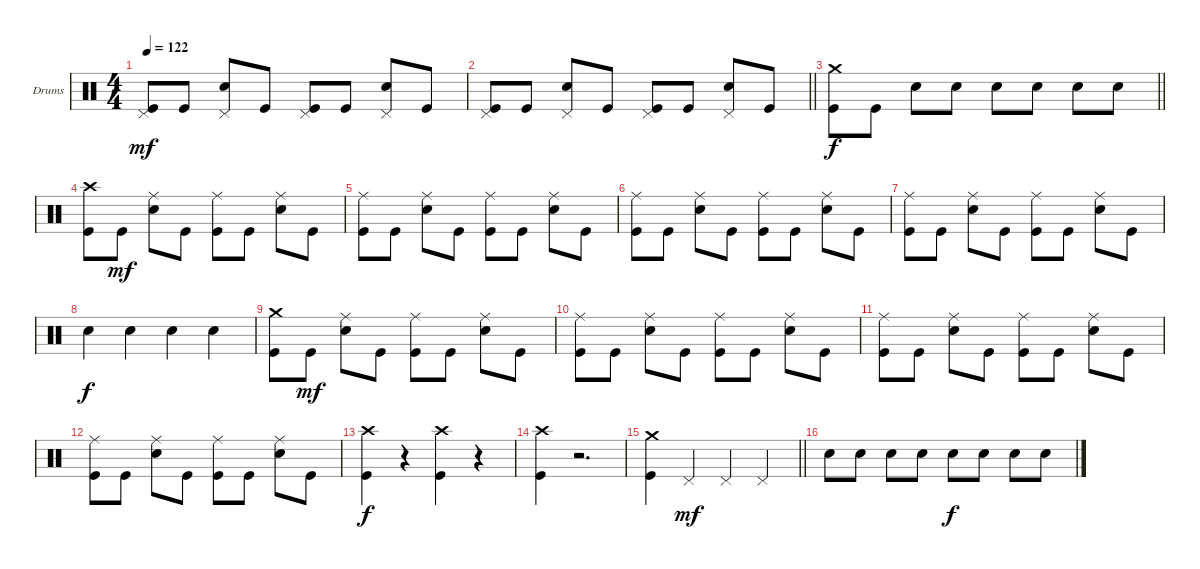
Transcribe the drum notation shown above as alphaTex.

\defaultSystemsLayout 4
\bracketExtendMode groupsimilarinstruments
\firstSystemTrackNameOrientation horizontal
\otherSystemsTrackNameOrientation horizontal
\track ("Drum" "Drums") {instrument percussion}
\staff {score}
\articulation defaults
\ts (4 4)
\tempo 122
\clef neutral
\ks c
("Kick (hit)" "Pedal Hi-Hat (hit)").8{dy mf} "Kick (hit)".8 ("Snare (hit) 2" "Pedal Hi-Hat (hit)").8 "Kick (hit)".8 ("Kick (hit)" "Pedal Hi-Hat (hit)").8 "Kick (hit)".8 ("Snare (hit) 2" "Pedal Hi-Hat (hit)").8 "Kick (hit)".8 |
\barLineRight lightlight
("Kick (hit)" "Pedal Hi-Hat (hit)").8 "Kick (hit)".8 ("Snare (hit) 2" "Pedal Hi-Hat (hit)").8 "Kick (hit)".8 ("Kick (hit)" "Pedal Hi-Hat (hit)").8 "Kick (hit)".8 ("Snare (hit) 2" "Pedal Hi-Hat (hit)").8 "Kick (hit)".8 |
\barLineRight lightlight
("Kick (hit)" "Crash medium (hit)").8{dy f} "Kick (hit)".8 "Snare (hit) 2".8 "Snare (hit) 2".8 "Snare (hit) 2".8 "Snare (hit) 2".8 "Snare (hit) 2".8 "Snare (hit) 2".8 |
("Kick (hit)" "Crash high (hit)").8 "Kick (hit)".8{dy mf} ("Snare (hit) 2" "Ride (middle)").8 "Kick (hit)".8 ("Kick (hit)" "Ride (middle)").8 "Kick (hit)".8 ("Snare (hit) 2" "Ride (middle)").8 "Kick (hit)".8 |
("Kick (hit)" "Ride (middle)").8 "Kick (hit)".8 ("Snare (hit) 2" "Ride (middle)").8 "Kick (hit)".8 ("Kick (hit)" "Ride (middle)").8 "Kick (hit)".8 ("Snare (hit) 2" "Ride (middle)").8 "Kick (hit)".8 |
("Kick (hit)" "Ride (middle)").8 "Kick (hit)".8 ("Snare (hit) 2" "Ride (middle)").8 "Kick (hit)".8 ("Kick (hit)" "Ride (middle)").8 "Kick (hit)".8 ("Snare (hit) 2" "Ride (middle)").8 "Kick (hit)".8 |
("Kick (hit)" "Ride (middle)").8 "Kick (hit)".8 ("Snare (hit) 2" "Ride (middle)").8 "Kick (hit)".8 ("Kick (hit)" "Ride (middle)").8 "Kick (hit)".8 ("Snare (hit) 2" "Ride (middle)").8 "Kick (hit)".8 |
"Snare (hit) 2".4{dy f} "Snare (hit) 2".4 "Snare (hit) 2".4 "Snare (hit) 2".4 |
("Kick (hit)" "Crash medium (hit)").8 "Kick (hit)".8{dy mf} ("Snare (hit) 2" "Ride (middle)").8 "Kick (hit)".8 ("Kick (hit)" "Ride (middle)").8 "Kick (hit)".8 ("Snare (hit) 2" "Ride (middle)").8 "Kick (hit)".8 |
("Kick (hit)" "Ride (middle)").8 "Kick (hit)".8 ("Snare (hit) 2" "Ride (middle)").8 "Kick (hit)".8 ("Kick (hit)" "Ride (middle)").8 "Kick (hit)".8 ("Snare (hit) 2" "Ride (middle)").8 "Kick (hit)".8 |
("Kick (hit)" "Ride (middle)").8 "Kick (hit)".8 ("Snare (hit) 2" "Ride (middle)").8 "Kick (hit)".8 ("Kick (hit)" "Ride (middle)").8 "Kick (hit)".8 ("Snare (hit) 2" "Ride (middle)").8 "Kick (hit)".8 |
("Kick (hit)" "Ride (middle)").8 "Kick (hit)".8 ("Snare (hit) 2" "Ride (middle)").8 "Kick (hit)".8 ("Kick (hit)" "Ride (middle)").8 "Kick (hit)".8 ("Snare (hit) 2" "Ride (middle)").8 "Kick (hit)".8 |
("Kick (hit)" "Crash high (hit)").4{dy f} r.4 ("Crash high (hit)" "Kick (hit)").4 r.4 |
("Kick (hit)" "Crash high (hit)").4 r.2{d} |
\barLineRight lightlight
("Kick (hit)" "Crash medium (hit)").4 "Pedal Hi-Hat (hit)".4{dy mf} "Pedal Hi-Hat (hit)".4 "Pedal Hi-Hat (hit)".4 |
"Snare (hit) 2".8 "Snare (hit) 2".8 "Snare (hit) 2".8 "Snare (hit) 2".8 "Snare (hit) 2".8{dy f} "Snare (hit) 2".8 "Snare (hit) 2".8 "Snare (hit) 2".8
